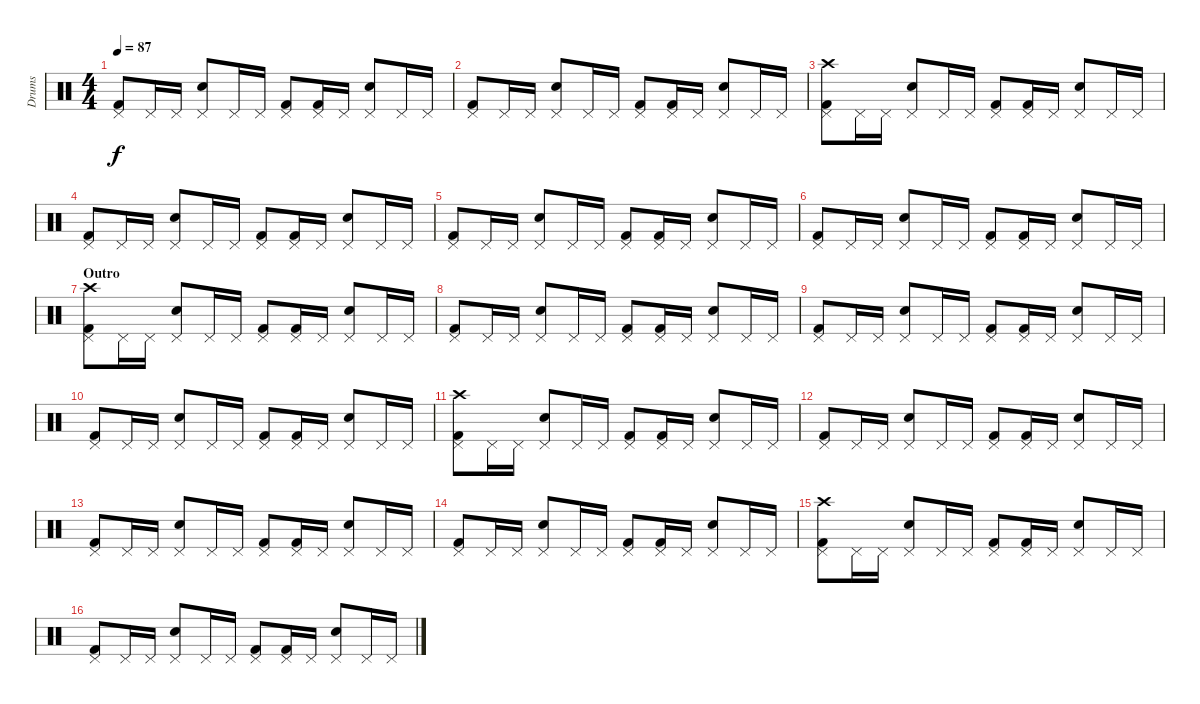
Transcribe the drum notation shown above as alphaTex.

\track ("Drums" "Drums") {instrument percussion}
\staff {score}
\articulation defaults
\ts (4 4)
\tempo 87
\clef neutral
\ks c
("Kick (hit) 2" "Pedal Hi-Hat (hit)").8{dy f} "Pedal Hi-Hat (hit)".16 "Pedal Hi-Hat (hit)".16 ("Snare (hit) 2" "Pedal Hi-Hat (hit)").8 "Pedal Hi-Hat (hit)".16 "Pedal Hi-Hat (hit)".16 ("Kick (hit) 2" "Pedal Hi-Hat (hit)").8 ("Kick (hit) 2" "Pedal Hi-Hat (hit)").16 "Pedal Hi-Hat (hit)".16 ("Snare (hit) 2" "Pedal Hi-Hat (hit)").8 "Pedal Hi-Hat (hit)".16 "Pedal Hi-Hat (hit)".16 |
("Kick (hit) 2" "Pedal Hi-Hat (hit)").8 "Pedal Hi-Hat (hit)".16 "Pedal Hi-Hat (hit)".16 ("Snare (hit) 2" "Pedal Hi-Hat (hit)").8 "Pedal Hi-Hat (hit)".16 "Pedal Hi-Hat (hit)".16 ("Kick (hit) 2" "Pedal Hi-Hat (hit)").8 ("Kick (hit) 2" "Pedal Hi-Hat (hit)").16 "Pedal Hi-Hat (hit)".16 ("Snare (hit) 2" "Pedal Hi-Hat (hit)").8 "Pedal Hi-Hat (hit)".16 "Pedal Hi-Hat (hit)".16 |
("Kick (hit) 2" "Pedal Hi-Hat (hit)" "Crash high (hit)").8 "Pedal Hi-Hat (hit)".16 "Pedal Hi-Hat (hit)".16 ("Snare (hit) 2" "Pedal Hi-Hat (hit)").8 "Pedal Hi-Hat (hit)".16 "Pedal Hi-Hat (hit)".16 ("Kick (hit) 2" "Pedal Hi-Hat (hit)").8 ("Kick (hit) 2" "Pedal Hi-Hat (hit)").16 "Pedal Hi-Hat (hit)".16 ("Snare (hit) 2" "Pedal Hi-Hat (hit)").8 "Pedal Hi-Hat (hit)".16 "Pedal Hi-Hat (hit)".16 |
("Kick (hit) 2" "Pedal Hi-Hat (hit)").8 "Pedal Hi-Hat (hit)".16 "Pedal Hi-Hat (hit)".16 ("Snare (hit) 2" "Pedal Hi-Hat (hit)").8 "Pedal Hi-Hat (hit)".16 "Pedal Hi-Hat (hit)".16 ("Kick (hit) 2" "Pedal Hi-Hat (hit)").8 ("Kick (hit) 2" "Pedal Hi-Hat (hit)").16 "Pedal Hi-Hat (hit)".16 ("Snare (hit) 2" "Pedal Hi-Hat (hit)").8 "Pedal Hi-Hat (hit)".16 "Pedal Hi-Hat (hit)".16 |
("Kick (hit) 2" "Pedal Hi-Hat (hit)").8 "Pedal Hi-Hat (hit)".16 "Pedal Hi-Hat (hit)".16 ("Snare (hit) 2" "Pedal Hi-Hat (hit)").8 "Pedal Hi-Hat (hit)".16 "Pedal Hi-Hat (hit)".16 ("Kick (hit) 2" "Pedal Hi-Hat (hit)").8 ("Kick (hit) 2" "Pedal Hi-Hat (hit)").16 "Pedal Hi-Hat (hit)".16 ("Snare (hit) 2" "Pedal Hi-Hat (hit)").8 "Pedal Hi-Hat (hit)".16 "Pedal Hi-Hat (hit)".16 |
("Kick (hit) 2" "Pedal Hi-Hat (hit)").8 "Pedal Hi-Hat (hit)".16 "Pedal Hi-Hat (hit)".16 ("Snare (hit) 2" "Pedal Hi-Hat (hit)").8 "Pedal Hi-Hat (hit)".16 "Pedal Hi-Hat (hit)".16 ("Kick (hit) 2" "Pedal Hi-Hat (hit)").8 ("Kick (hit) 2" "Pedal Hi-Hat (hit)").16 "Pedal Hi-Hat (hit)".16 ("Snare (hit) 2" "Pedal Hi-Hat (hit)").8 "Pedal Hi-Hat (hit)".16 "Pedal Hi-Hat (hit)".16 |
\section ("" "Outro")
("Kick (hit) 2" "Pedal Hi-Hat (hit)" "Crash high (hit)").8 "Pedal Hi-Hat (hit)".16 "Pedal Hi-Hat (hit)".16 ("Snare (hit) 2" "Pedal Hi-Hat (hit)").8 "Pedal Hi-Hat (hit)".16 "Pedal Hi-Hat (hit)".16 ("Kick (hit) 2" "Pedal Hi-Hat (hit)").8 ("Kick (hit) 2" "Pedal Hi-Hat (hit)").16 "Pedal Hi-Hat (hit)".16 ("Snare (hit) 2" "Pedal Hi-Hat (hit)").8 "Pedal Hi-Hat (hit)".16 "Pedal Hi-Hat (hit)".16 |
("Kick (hit) 2" "Pedal Hi-Hat (hit)").8 "Pedal Hi-Hat (hit)".16 "Pedal Hi-Hat (hit)".16 ("Snare (hit) 2" "Pedal Hi-Hat (hit)").8 "Pedal Hi-Hat (hit)".16 "Pedal Hi-Hat (hit)".16 ("Kick (hit) 2" "Pedal Hi-Hat (hit)").8 ("Kick (hit) 2" "Pedal Hi-Hat (hit)").16 "Pedal Hi-Hat (hit)".16 ("Snare (hit) 2" "Pedal Hi-Hat (hit)").8 "Pedal Hi-Hat (hit)".16 "Pedal Hi-Hat (hit)".16 |
("Kick (hit) 2" "Pedal Hi-Hat (hit)").8 "Pedal Hi-Hat (hit)".16 "Pedal Hi-Hat (hit)".16 ("Snare (hit) 2" "Pedal Hi-Hat (hit)").8 "Pedal Hi-Hat (hit)".16 "Pedal Hi-Hat (hit)".16 ("Kick (hit) 2" "Pedal Hi-Hat (hit)").8 ("Kick (hit) 2" "Pedal Hi-Hat (hit)").16 "Pedal Hi-Hat (hit)".16 ("Snare (hit) 2" "Pedal Hi-Hat (hit)").8 "Pedal Hi-Hat (hit)".16 "Pedal Hi-Hat (hit)".16 |
("Kick (hit) 2" "Pedal Hi-Hat (hit)").8 "Pedal Hi-Hat (hit)".16 "Pedal Hi-Hat (hit)".16 ("Snare (hit) 2" "Pedal Hi-Hat (hit)").8 "Pedal Hi-Hat (hit)".16 "Pedal Hi-Hat (hit)".16 ("Kick (hit) 2" "Pedal Hi-Hat (hit)").8 ("Kick (hit) 2" "Pedal Hi-Hat (hit)").16 "Pedal Hi-Hat (hit)".16 ("Snare (hit) 2" "Pedal Hi-Hat (hit)").8 "Pedal Hi-Hat (hit)".16 "Pedal Hi-Hat (hit)".16 |
("Kick (hit) 2" "Pedal Hi-Hat (hit)" "Crash high (hit)").8 "Pedal Hi-Hat (hit)".16 "Pedal Hi-Hat (hit)".16 ("Snare (hit) 2" "Pedal Hi-Hat (hit)").8 "Pedal Hi-Hat (hit)".16 "Pedal Hi-Hat (hit)".16 ("Kick (hit) 2" "Pedal Hi-Hat (hit)").8 ("Kick (hit) 2" "Pedal Hi-Hat (hit)").16 "Pedal Hi-Hat (hit)".16 ("Snare (hit) 2" "Pedal Hi-Hat (hit)").8 "Pedal Hi-Hat (hit)".16 "Pedal Hi-Hat (hit)".16 |
("Kick (hit) 2" "Pedal Hi-Hat (hit)").8 "Pedal Hi-Hat (hit)".16 "Pedal Hi-Hat (hit)".16 ("Snare (hit) 2" "Pedal Hi-Hat (hit)").8 "Pedal Hi-Hat (hit)".16 "Pedal Hi-Hat (hit)".16 ("Kick (hit) 2" "Pedal Hi-Hat (hit)").8 ("Kick (hit) 2" "Pedal Hi-Hat (hit)").16 "Pedal Hi-Hat (hit)".16 ("Snare (hit) 2" "Pedal Hi-Hat (hit)").8 "Pedal Hi-Hat (hit)".16 "Pedal Hi-Hat (hit)".16 |
("Kick (hit) 2" "Pedal Hi-Hat (hit)").8 "Pedal Hi-Hat (hit)".16 "Pedal Hi-Hat (hit)".16 ("Snare (hit) 2" "Pedal Hi-Hat (hit)").8 "Pedal Hi-Hat (hit)".16 "Pedal Hi-Hat (hit)".16 ("Kick (hit) 2" "Pedal Hi-Hat (hit)").8 ("Kick (hit) 2" "Pedal Hi-Hat (hit)").16 "Pedal Hi-Hat (hit)".16 ("Snare (hit) 2" "Pedal Hi-Hat (hit)").8 "Pedal Hi-Hat (hit)".16 "Pedal Hi-Hat (hit)".16 |
("Kick (hit) 2" "Pedal Hi-Hat (hit)").8 "Pedal Hi-Hat (hit)".16 "Pedal Hi-Hat (hit)".16 ("Snare (hit) 2" "Pedal Hi-Hat (hit)").8 "Pedal Hi-Hat (hit)".16 "Pedal Hi-Hat (hit)".16 ("Kick (hit) 2" "Pedal Hi-Hat (hit)").8 ("Kick (hit) 2" "Pedal Hi-Hat (hit)").16 "Pedal Hi-Hat (hit)".16 ("Snare (hit) 2" "Pedal Hi-Hat (hit)").8 "Pedal Hi-Hat (hit)".16 "Pedal Hi-Hat (hit)".16 |
("Kick (hit) 2" "Pedal Hi-Hat (hit)" "Crash high (hit)").8 "Pedal Hi-Hat (hit)".16 "Pedal Hi-Hat (hit)".16 ("Snare (hit) 2" "Pedal Hi-Hat (hit)").8 "Pedal Hi-Hat (hit)".16 "Pedal Hi-Hat (hit)".16 ("Kick (hit) 2" "Pedal Hi-Hat (hit)").8 ("Kick (hit) 2" "Pedal Hi-Hat (hit)").16 "Pedal Hi-Hat (hit)".16 ("Snare (hit) 2" "Pedal Hi-Hat (hit)").8 "Pedal Hi-Hat (hit)".16 "Pedal Hi-Hat (hit)".16 |
("Kick (hit) 2" "Pedal Hi-Hat (hit)").8 "Pedal Hi-Hat (hit)".16 "Pedal Hi-Hat (hit)".16 ("Snare (hit) 2" "Pedal Hi-Hat (hit)").8 "Pedal Hi-Hat (hit)".16 "Pedal Hi-Hat (hit)".16 ("Kick (hit) 2" "Pedal Hi-Hat (hit)").8 ("Kick (hit) 2" "Pedal Hi-Hat (hit)").16 "Pedal Hi-Hat (hit)".16 ("Snare (hit) 2" "Pedal Hi-Hat (hit)").8 "Pedal Hi-Hat (hit)".16 "Pedal Hi-Hat (hit)".16
